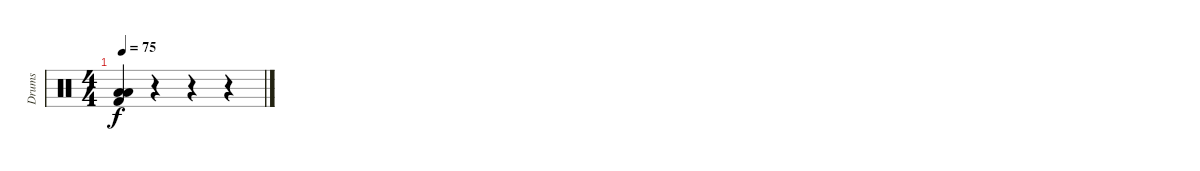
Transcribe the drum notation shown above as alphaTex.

\track ("Drums" "Drums") {instrument percussion}
\staff {score}
\articulation defaults
\ts (4 4)
\tempo 75
\clef neutral
\ks c
("Kick (hit) 2" "Low Floor Tom (hit)" "Low Tom (hit)").4{dy f} r.4 r.4 r.4
